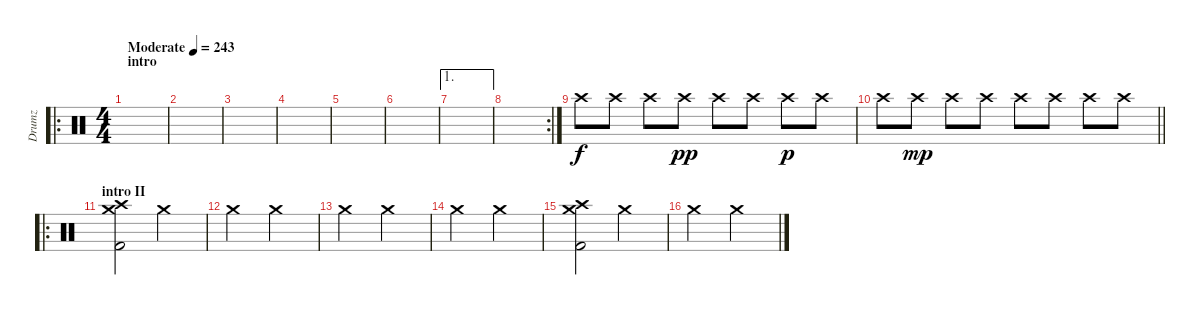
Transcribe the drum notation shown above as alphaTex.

\track ("Drumz" "Drumz") {instrument percussion}
\staff {score}
\articulation defaults
\ro
\ts (4 4)
\section ("" "intro")
\tempo (243 "Moderate")
\clef neutral
\ks c
|
|
|
|
|
|
\ae 1
|
\rc 2
|
"Crash high (hit)".8 "Crash high (hit)".8 "Crash high (hit)".8 "Crash high (hit)".8{dy pp} "Crash high (hit)".8 "Crash high (hit)".8 "Crash high (hit)".8{dy p} "Crash high (hit)".8 |
\barLineRight lightlight "Crash high (hit)".8 "Crash high (hit)".8{dy mp} "Crash high (hit)".8 "Crash high (hit)".8 "Crash high (hit)".8 "Crash high (hit)".8 "Crash high (hit)".8 "Crash high (hit)".8
|
\ro
\section ("" "intro II")
("Crash high (hit)" "Crash medium (hit)" "Kick (hit) 2").2 "Crash medium (hit)".2 |
"Crash medium (hit)".2 "Crash medium (hit)".2 |
"Crash medium (hit)".2 "Crash medium (hit)".2 |
"Crash medium (hit)".2 "Crash medium (hit)".2 |
("Crash high (hit)" "Crash medium (hit)" "Kick (hit) 2").2 "Crash medium (hit)".2 |
"Crash medium (hit)".2 "Crash medium (hit)".2
